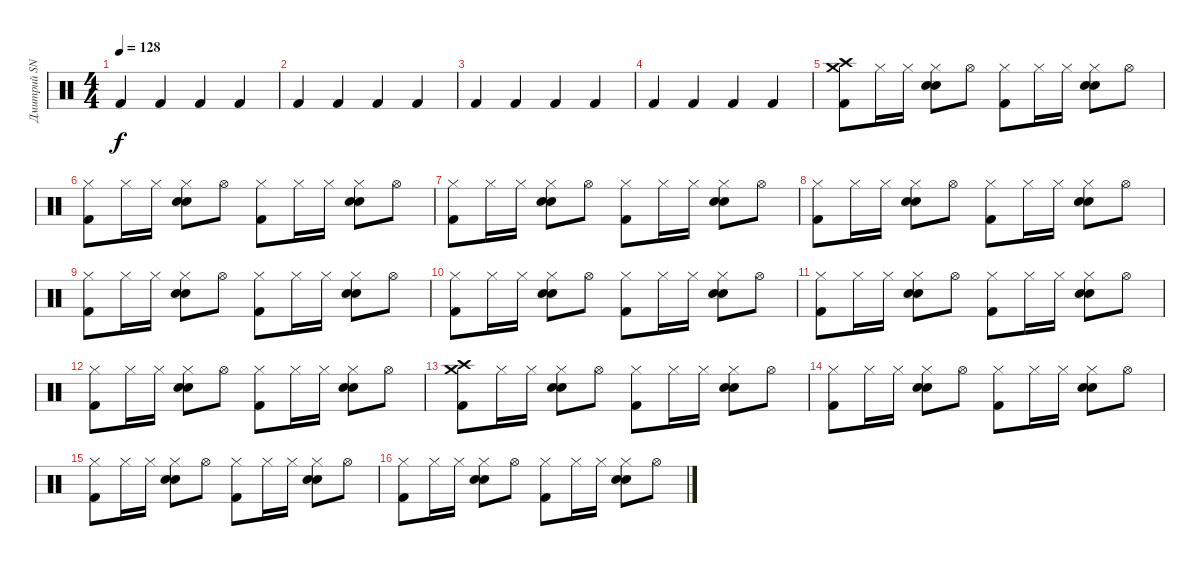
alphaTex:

\track ("Дмитрий SNAKE Хакимов" "Дмитрий SN") {instrument percussion}
\staff {score}
\articulation defaults
\ts (4 4)
\tempo 128
\clef neutral
\ks c "Kick (hit) 2".4{dy f} "Kick (hit) 2".4 "Kick (hit) 2".4 "Kick (hit) 2".4
|
"Kick (hit) 2".4 "Kick (hit) 2".4 "Kick (hit) 2".4 "Kick (hit) 2".4 |
"Kick (hit) 2".4 "Kick (hit) 2".4 "Kick (hit) 2".4 "Kick (hit) 2".4 |
"Kick (hit) 2".4 "Kick (hit) 2".4 "Kick (hit) 2".4 "Kick (hit) 2".4 |
("Crash high (hit)" "Crash medium (hit)" "Kick (hit) 2").8 "Hi-Hat (closed)".16 "Hi-Hat (closed)".16 ("Hi-Hat (closed)" "Snare (hit) 2" "Hand Clap (hit)").8 "Hi-Hat (open)".8 ("Hi-Hat (closed)" "Kick (hit) 2").8 "Hi-Hat (closed)".16 "Hi-Hat (closed)".16 ("Hi-Hat (closed)" "Snare (hit) 2" "Hand Clap (hit)").8 "Hi-Hat (open)".8 |
("Hi-Hat (closed)" "Kick (hit) 2").8 "Hi-Hat (closed)".16 "Hi-Hat (closed)".16 ("Hi-Hat (closed)" "Snare (hit) 2" "Hand Clap (hit)").8 "Hi-Hat (open)".8 ("Hi-Hat (closed)" "Kick (hit) 2").8 "Hi-Hat (closed)".16 "Hi-Hat (closed)".16 ("Hi-Hat (closed)" "Snare (hit) 2" "Hand Clap (hit)").8 "Hi-Hat (open)".8 |
("Hi-Hat (closed)" "Kick (hit) 2").8 "Hi-Hat (closed)".16 "Hi-Hat (closed)".16 ("Hi-Hat (closed)" "Snare (hit) 2" "Hand Clap (hit)").8 "Hi-Hat (open)".8 ("Hi-Hat (closed)" "Kick (hit) 2").8 "Hi-Hat (closed)".16 "Hi-Hat (closed)".16 ("Hi-Hat (closed)" "Snare (hit) 2" "Hand Clap (hit)").8 "Hi-Hat (open)".8 |
("Hi-Hat (closed)" "Kick (hit) 2").8 "Hi-Hat (closed)".16 "Hi-Hat (closed)".16 ("Hi-Hat (closed)" "Snare (hit) 2" "Hand Clap (hit)").8 "Hi-Hat (open)".8 ("Hi-Hat (closed)" "Kick (hit) 2").8 "Hi-Hat (closed)".16 "Hi-Hat (closed)".16 ("Hi-Hat (closed)" "Snare (hit) 2" "Hand Clap (hit)").8 "Hi-Hat (open)".8 |
("Hi-Hat (closed)" "Kick (hit) 2").8 "Hi-Hat (closed)".16 "Hi-Hat (closed)".16 ("Hi-Hat (closed)" "Snare (hit) 2" "Hand Clap (hit)").8 "Hi-Hat (open)".8 ("Hi-Hat (closed)" "Kick (hit) 2").8 "Hi-Hat (closed)".16 "Hi-Hat (closed)".16 ("Hi-Hat (closed)" "Snare (hit) 2" "Hand Clap (hit)").8 "Hi-Hat (open)".8 |
("Hi-Hat (closed)" "Kick (hit) 2").8 "Hi-Hat (closed)".16 "Hi-Hat (closed)".16 ("Hi-Hat (closed)" "Snare (hit) 2" "Hand Clap (hit)").8 "Hi-Hat (open)".8 ("Hi-Hat (closed)" "Kick (hit) 2").8 "Hi-Hat (closed)".16 "Hi-Hat (closed)".16 ("Hi-Hat (closed)" "Snare (hit) 2" "Hand Clap (hit)").8 "Hi-Hat (open)".8 |
("Hi-Hat (closed)" "Kick (hit) 2").8 "Hi-Hat (closed)".16 "Hi-Hat (closed)".16 ("Hi-Hat (closed)" "Snare (hit) 2" "Hand Clap (hit)").8 "Hi-Hat (open)".8 ("Hi-Hat (closed)" "Kick (hit) 2").8 "Hi-Hat (closed)".16 "Hi-Hat (closed)".16 ("Hi-Hat (closed)" "Snare (hit) 2" "Hand Clap (hit)").8 "Hi-Hat (open)".8 |
("Hi-Hat (closed)" "Kick (hit) 2").8 "Hi-Hat (closed)".16 "Hi-Hat (closed)".16 ("Hi-Hat (closed)" "Snare (hit) 2" "Hand Clap (hit)").8 "Hi-Hat (open)".8 ("Hi-Hat (closed)" "Kick (hit) 2").8 "Hi-Hat (closed)".16 "Hi-Hat (closed)".16 ("Hi-Hat (closed)" "Snare (hit) 2" "Hand Clap (hit)").8 "Hi-Hat (open)".8 |
("Crash high (hit)" "Crash medium (hit)" "Kick (hit) 2").8 "Hi-Hat (closed)".16 "Hi-Hat (closed)".16 ("Hi-Hat (closed)" "Snare (hit) 2" "Hand Clap (hit)").8 "Hi-Hat (open)".8 ("Hi-Hat (closed)" "Kick (hit) 2").8 "Hi-Hat (closed)".16 "Hi-Hat (closed)".16 ("Hi-Hat (closed)" "Snare (hit) 2" "Hand Clap (hit)").8 "Hi-Hat (open)".8 |
("Hi-Hat (closed)" "Kick (hit) 2").8 "Hi-Hat (closed)".16 "Hi-Hat (closed)".16 ("Hi-Hat (closed)" "Snare (hit) 2" "Hand Clap (hit)").8 "Hi-Hat (open)".8 ("Hi-Hat (closed)" "Kick (hit) 2").8 "Hi-Hat (closed)".16 "Hi-Hat (closed)".16 ("Hi-Hat (closed)" "Snare (hit) 2" "Hand Clap (hit)").8 "Hi-Hat (open)".8 |
("Hi-Hat (closed)" "Kick (hit) 2").8 "Hi-Hat (closed)".16 "Hi-Hat (closed)".16 ("Hi-Hat (closed)" "Snare (hit) 2" "Hand Clap (hit)").8 "Hi-Hat (open)".8 ("Hi-Hat (closed)" "Kick (hit) 2").8 "Hi-Hat (closed)".16 "Hi-Hat (closed)".16 ("Hi-Hat (closed)" "Snare (hit) 2" "Hand Clap (hit)").8 "Hi-Hat (open)".8 |
("Hi-Hat (closed)" "Kick (hit) 2").8 "Hi-Hat (closed)".16 "Hi-Hat (closed)".16 ("Hi-Hat (closed)" "Snare (hit) 2" "Hand Clap (hit)").8 "Hi-Hat (open)".8 ("Hi-Hat (closed)" "Kick (hit) 2").8 "Hi-Hat (closed)".16 "Hi-Hat (closed)".16 ("Hi-Hat (closed)" "Snare (hit) 2" "Hand Clap (hit)").8 "Hi-Hat (open)".8
